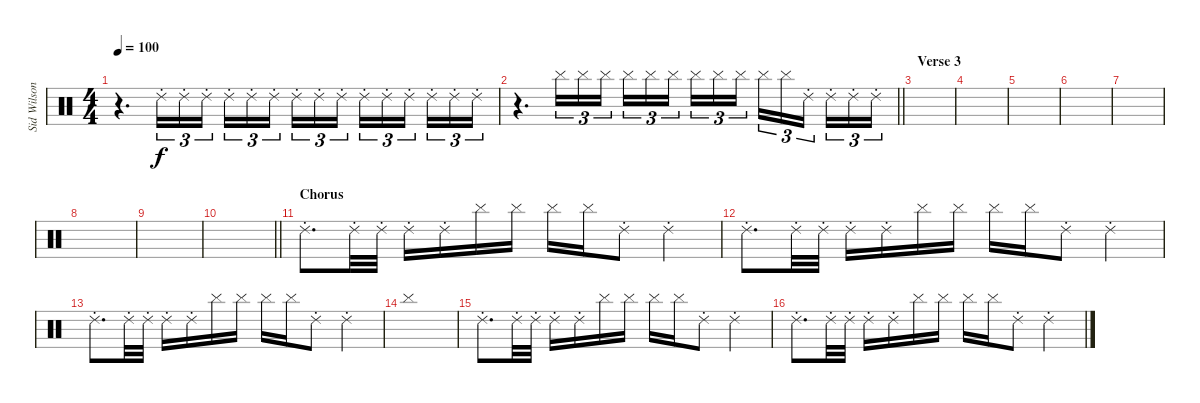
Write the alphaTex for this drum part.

\track ("Sid Wilson" "Sid Wilson") {instrument percussion}
\staff {score}
\articulation defaults
\ts (4 4)
\tempo 100
\clef neutral
\ks c
r.4{d dy f} "Ride (choke) 2".16{tu (3 2)} "Ride (choke) 2".16{tu (3 2)} "Ride (choke) 2".16{tu (3 2)} "Ride (choke) 2".16{tu (3 2)} "Ride (choke) 2".16{tu (3 2)} "Ride (choke) 2".16{tu (3 2) beam splitsecondary} "Ride (choke) 2".16{tu (3 2)} "Ride (choke) 2".16{tu (3 2)} "Ride (choke) 2".16{tu (3 2)} "Ride (choke) 2".16{tu (3 2)} "Ride (choke) 2".16{tu (3 2)} "Ride (choke) 2".16{tu (3 2) beam splitsecondary} "Ride (choke) 2".16{tu (3 2)} "Ride (choke) 2".16{tu (3 2)} "Ride (choke) 2".16{tu (3 2)} |
\barLineRight lightlight
r.4{d} "Cymbal (hit)".16{tu (3 2)} "Cymbal (hit)".16{tu (3 2)} "Cymbal (hit)".16{tu (3 2)} "Cymbal (hit)".16{tu (3 2)} "Cymbal (hit)".16{tu (3 2)} "Cymbal (hit)".16{tu (3 2) beam splitsecondary} "Cymbal (hit)".16{tu (3 2)} "Cymbal (hit)".16{tu (3 2)} "Cymbal (hit)".16{tu (3 2)} "Cymbal (hit)".16{tu (3 2)} "Cymbal (hit)".16{tu (3 2)} "Ride (choke) 2".16{tu (3 2) beam splitsecondary} "Ride (choke) 2".16{tu (3 2)} "Ride (choke) 2".16{tu (3 2)} "Ride (choke) 2".16{tu (3 2)} |
\section ("" "Verse 3")
|
|
|
|
|
|
|
\barLineRight lightlight
|
\section ("" "Chorus")
"Ride (choke) 2".8{d} "Ride (choke) 2".32 "Ride (choke) 2".32 "Ride (choke) 2".16 "Ride (choke) 2".16 "Cymbal (hit)".16 "Cymbal (hit)".16 "Cymbal (hit)".16 "Cymbal (hit)".16 "Ride (choke) 2".8 "Ride (choke) 2".4 |
"Ride (choke) 2".8{d} "Ride (choke) 2".32 "Ride (choke) 2".32 "Ride (choke) 2".16 "Ride (choke) 2".16 "Cymbal (hit)".16 "Cymbal (hit)".16 "Cymbal (hit)".16 "Cymbal (hit)".16 "Ride (choke) 2".8 "Ride (choke) 2".4 |
"Ride (choke) 2".8{d} "Ride (choke) 2".32 "Ride (choke) 2".32 "Ride (choke) 2".16 "Ride (choke) 2".16 "Cymbal (hit)".16 "Cymbal (hit)".16 "Cymbal (hit)".16 "Cymbal (hit)".16 "Ride (choke) 2".8 "Ride (choke) 2".4 |
"Cymbal (hit)".1 |
"Ride (choke) 2".8{d} "Ride (choke) 2".32 "Ride (choke) 2".32 "Ride (choke) 2".16 "Ride (choke) 2".16 "Cymbal (hit)".16 "Cymbal (hit)".16 "Cymbal (hit)".16 "Cymbal (hit)".16 "Ride (choke) 2".8 "Ride (choke) 2".4 |
"Ride (choke) 2".8{d} "Ride (choke) 2".32 "Ride (choke) 2".32 "Ride (choke) 2".16 "Ride (choke) 2".16 "Cymbal (hit)".16 "Cymbal (hit)".16 "Cymbal (hit)".16 "Cymbal (hit)".16 "Ride (choke) 2".8 "Ride (choke) 2".4
